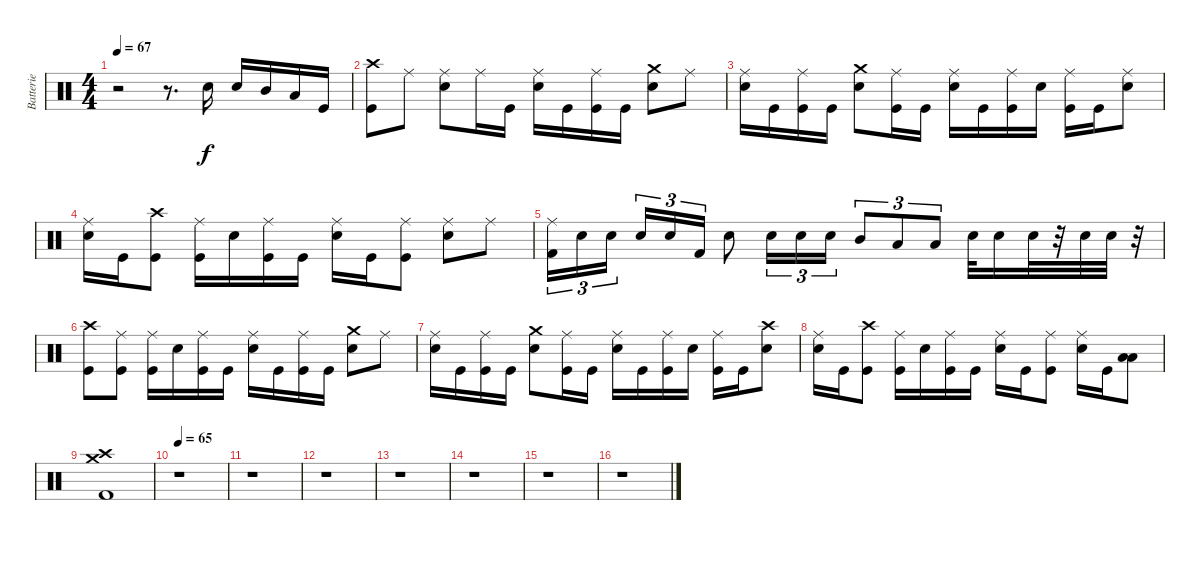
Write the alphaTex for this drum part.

\track ("Batterie" "Batterie") {instrument percussion}
\staff {score}
\articulation defaults
\ts (4 4)
\tempo 67
\clef neutral
\ks c
r.2{dy f} r.8{d} "Electric Snare (hit)".16 "Electric Snare (hit)".16 "Mid Tom (hit)".16 "Low Tom (hit)".16 "Kick (hit)".16 |
("Crash high (hit)" "Kick (hit)").8 "Ride (middle)".8 ("Ride (middle)" "Electric Snare (hit)").8 "Ride (middle)".16 "Kick (hit)".16 ("Ride (middle)" "Electric Snare (hit)").16 "Kick (hit)".16 ("Ride (middle)" "Kick (hit)").16 "Kick (hit)".16 ("Crash medium (hit)" "Electric Snare (hit)").8 "Ride (middle)".8 |
("Ride (middle)" "Electric Snare (hit)").16 "Kick (hit)".16 ("Ride (middle)" "Kick (hit)").16 "Kick (hit)".16 ("Crash medium (hit)" "Electric Snare (hit)").8 ("Ride (middle)" "Kick (hit)").16 "Kick (hit)".16 ("Ride (middle)" "Electric Snare (hit)").16 "Kick (hit)".16 ("Ride (middle)" "Kick (hit)").16 "Electric Snare (hit)".16 ("Ride (middle)" "Kick (hit)").16 "Kick (hit)".16 ("Ride (middle)" "Electric Snare (hit)").8 |
("Ride (middle)" "Electric Snare (hit)").16 "Kick (hit)".16 ("Crash high (hit)" "Kick (hit)").8 ("Ride (middle)" "Kick (hit)").16 "Electric Snare (hit)".16 ("Ride (middle)" "Kick (hit)").16 "Kick (hit)".16 ("Ride (middle)" "Electric Snare (hit)").16 "Kick (hit)".16 ("Ride (middle)" "Kick (hit)").8 ("Ride (middle)" "Electric Snare (hit)").8 "Ride (middle)".8 |
("Ride (middle)" "Kick (hit) 2").16{tu (3 2)} "Electric Snare (hit)".16{tu (3 2)} "Electric Snare (hit)".16{tu (3 2)} "Electric Snare (hit)".16{tu (3 2)} "Electric Snare (hit)".16{tu (3 2)} "Kick (hit) 2".16{tu (3 2)} "Electric Snare (hit)".8 "Electric Snare (hit)".16{tu (3 2)} "Electric Snare (hit)".16{tu (3 2)} "Electric Snare (hit)".16{tu (3 2)} "Mid Tom (hit)".8{tu (3 2)} "Low Tom (hit)".8{tu (3 2)} "Low Floor Tom (hit)".8{tu (3 2)} "Electric Snare (hit)".32 "Electric Snare (hit)".16 "Electric Snare (hit)".32 r.32 "Electric Snare (hit)".32 "Electric Snare (hit)".32 r.32 |
("Crash high (hit)" "Kick (hit)").8 ("Ride (middle)" "Kick (hit)").8 ("Ride (middle)" "Kick (hit)").16 "Electric Snare (hit)".16 ("Ride (middle)" "Kick (hit)").16 "Kick (hit)".16 ("Ride (middle)" "Electric Snare (hit)").16 "Kick (hit)".16 ("Ride (middle)" "Kick (hit)").16 "Kick (hit)".16 ("Crash medium (hit)" "Electric Snare (hit)").8 "Ride (middle)".8 |
("Ride (middle)" "Electric Snare (hit)").16 "Kick (hit)".16 ("Ride (middle)" "Kick (hit)").16 "Kick (hit)".16 ("Crash medium (hit)" "Electric Snare (hit)").8 ("Ride (middle)" "Kick (hit)").16 "Kick (hit)".16 ("Ride (middle)" "Electric Snare (hit)").16 "Kick (hit)".16 ("Ride (middle)" "Kick (hit)").16 "Electric Snare (hit)".16 ("Ride (middle)" "Kick (hit)").16 "Kick (hit)".16 ("Crash high (hit)" "Electric Snare (hit)").8 |
("Ride (middle)" "Electric Snare (hit)").16 "Kick (hit)".16 ("Crash high (hit)" "Kick (hit)").8 ("Ride (middle)" "Kick (hit)").16 "Electric Snare (hit)".16 ("Ride (middle)" "Kick (hit)").16 "Kick (hit)".16 ("Ride (middle)" "Electric Snare (hit)").16 "Kick (hit)".16 ("Ride (middle)" "Kick (hit)").8 ("Ride (middle)" "Electric Snare (hit)").16 "Kick (hit)".16 ("Low Tom (hit)" "Low Floor Tom (hit)").8 |
("Crash high (hit)" "Crash medium (hit)" "Kick (hit) 2").1 |
\tempo 65
r.1 |
r.1 |
r.1 |
r.1 |
r.1 |
r.1 |
r.1
